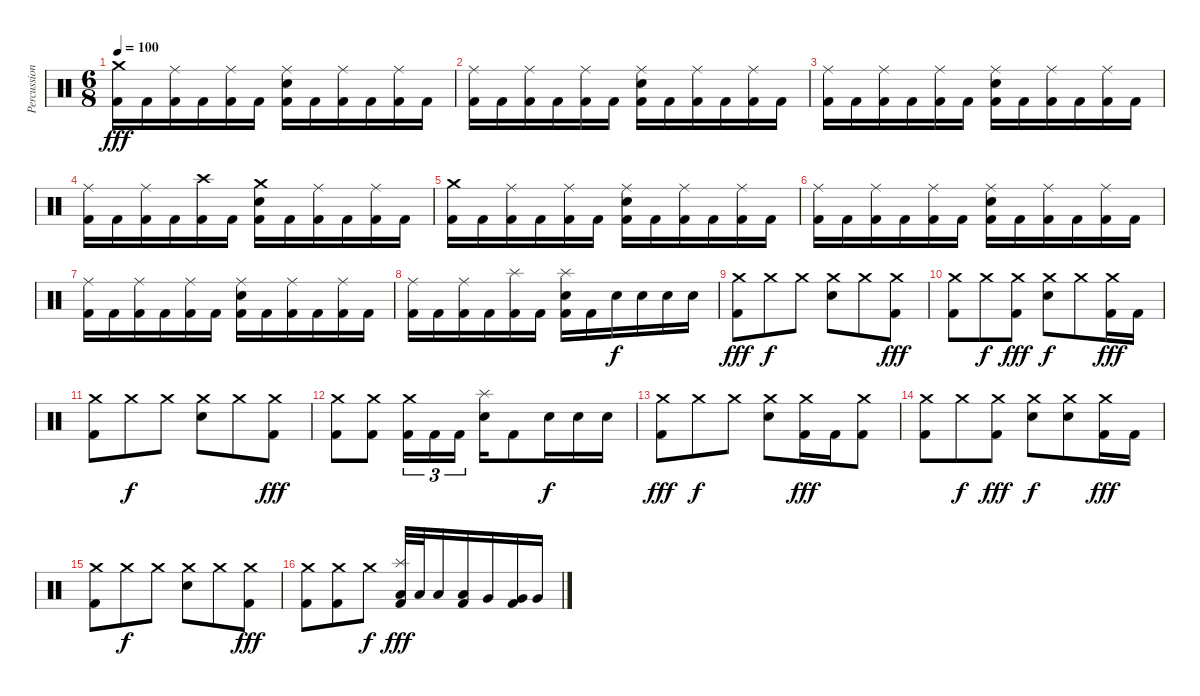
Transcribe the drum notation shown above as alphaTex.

\track ("Percussion" "Percussion") {instrument percussion}
\staff {score}
\articulation defaults
\ts (6 8)
\tempo 100
\clef neutral
\ks c
("Crash medium (hit)" "Kick (hit) 2").16{dy fff} "Kick (hit) 2".16 ("Ride (middle)" "Kick (hit) 2").16 "Kick (hit) 2".16 ("Ride (middle)" "Kick (hit) 2").16 "Kick (hit) 2".16 ("Ride (middle)" "Electric Snare (hit)" "Kick (hit) 2").16 "Kick (hit) 2".16 ("Ride (middle)" "Kick (hit) 2").16 "Kick (hit) 2".16 ("Ride (middle)" "Kick (hit) 2").16 "Kick (hit) 2".16 |
("Ride (middle)" "Kick (hit) 2").16 "Kick (hit) 2".16 ("Ride (middle)" "Kick (hit) 2").16 "Kick (hit) 2".16 ("Ride (middle)" "Kick (hit) 2").16 "Kick (hit) 2".16 ("Ride (middle)" "Electric Snare (hit)" "Kick (hit) 2").16 "Kick (hit) 2".16 ("Ride (middle)" "Kick (hit) 2").16 "Kick (hit) 2".16 ("Ride (middle)" "Kick (hit) 2").16 "Kick (hit) 2".16 |
("Ride (middle)" "Kick (hit) 2").16 "Kick (hit) 2".16 ("Ride (middle)" "Kick (hit) 2").16 "Kick (hit) 2".16 ("Ride (middle)" "Kick (hit) 2").16 "Kick (hit) 2".16 ("Ride (middle)" "Electric Snare (hit)" "Kick (hit) 2").16 "Kick (hit) 2".16 ("Ride (middle)" "Kick (hit) 2").16 "Kick (hit) 2".16 ("Ride (middle)" "Kick (hit) 2").16 "Kick (hit) 2".16 |
("Ride (middle)" "Kick (hit) 2").16 "Kick (hit) 2".16 ("Ride (middle)" "Kick (hit) 2").16 "Kick (hit) 2".16 ("Crash high (hit)" "Kick (hit) 2").16 "Kick (hit) 2".16 ("Crash medium (hit)" "Electric Snare (hit)" "Kick (hit) 2").16 "Kick (hit) 2".16 ("Ride (middle)" "Kick (hit) 2").16 "Kick (hit) 2".16 ("Ride (middle)" "Kick (hit) 2").16 "Kick (hit) 2".16 |
("Crash medium (hit)" "Kick (hit) 2").16 "Kick (hit) 2".16 ("Ride (middle)" "Kick (hit) 2").16 "Kick (hit) 2".16 ("Ride (middle)" "Kick (hit) 2").16 "Kick (hit) 2".16 ("Ride (middle)" "Electric Snare (hit)" "Kick (hit) 2").16 "Kick (hit) 2".16 ("Ride (middle)" "Kick (hit) 2").16 "Kick (hit) 2".16 ("Ride (middle)" "Kick (hit) 2").16 "Kick (hit) 2".16 |
("Ride (middle)" "Kick (hit) 2").16 "Kick (hit) 2".16 ("Ride (middle)" "Kick (hit) 2").16 "Kick (hit) 2".16 ("Ride (middle)" "Kick (hit) 2").16 "Kick (hit) 2".16 ("Ride (middle)" "Electric Snare (hit)" "Kick (hit) 2").16 "Kick (hit) 2".16 ("Ride (middle)" "Kick (hit) 2").16 "Kick (hit) 2".16 ("Ride (middle)" "Kick (hit) 2").16 "Kick (hit) 2".16 |
("Ride (middle)" "Kick (hit) 2").16 "Kick (hit) 2".16 ("Ride (middle)" "Kick (hit) 2").16 "Kick (hit) 2".16 ("Ride (middle)" "Kick (hit) 2").16 "Kick (hit) 2".16 ("Ride (middle)" "Electric Snare (hit)" "Kick (hit) 2").16 "Kick (hit) 2".16 ("Ride (middle)" "Kick (hit) 2").16 "Kick (hit) 2".16 ("Ride (middle)" "Kick (hit) 2").16 "Kick (hit) 2".16 |
("Ride (middle)" "Kick (hit) 2").16 "Kick (hit) 2".16 ("Ride (middle)" "Kick (hit) 2").16 "Kick (hit) 2".16 ("Splash (hit)" "Kick (hit) 2").16 "Kick (hit) 2".16 ("Splash (hit)" "Electric Snare (hit)" "Kick (hit) 2").16 "Kick (hit) 2".16 "Electric Snare (hit)".16{dy f} "Electric Snare (hit)".16 "Electric Snare (hit)".16 "Electric Snare (hit)".16 |
("Crash medium (hit)" "Kick (hit) 2").8{dy fff} "Crash medium (hit)".8{dy f} "Crash medium (hit)".8 ("Crash medium (hit)" "Electric Snare (hit)").8 "Crash medium (hit)".8 ("Crash medium (hit)" "Kick (hit) 2").8{dy fff} |
("Crash medium (hit)" "Kick (hit) 2").8 "Crash medium (hit)".8{dy f} ("Crash medium (hit)" "Kick (hit) 2").8{dy fff} ("Crash medium (hit)" "Electric Snare (hit)").8{dy f} "Crash medium (hit)".8 ("Crash medium (hit)" "Kick (hit) 2").16{dy fff} "Kick (hit) 2".16 |
("Crash medium (hit)" "Kick (hit) 2").8 "Crash medium (hit)".8{dy f} "Crash medium (hit)".8 ("Crash medium (hit)" "Electric Snare (hit)").8 "Crash medium (hit)".8 ("Crash medium (hit)" "Kick (hit) 2").8{dy fff} |
("Crash medium (hit)" "Kick (hit) 2").8 ("Crash medium (hit)" "Kick (hit) 2").8 ("Crash medium (hit)" "Kick (hit) 2").16{tu (3 2)} "Kick (hit) 2".16{tu (3 2)} "Kick (hit) 2".16{tu (3 2)} ("Splash (hit)" "Electric Snare (hit)").16 "Kick (hit) 2".8 "Electric Snare (hit)".16{dy f} "Electric Snare (hit)".16 "Electric Snare (hit)".16 |
("Crash medium (hit)" "Kick (hit) 2").8{dy fff} "Crash medium (hit)".8{dy f} "Crash medium (hit)".8 ("Crash medium (hit)" "Electric Snare (hit)").8 ("Crash medium (hit)" "Kick (hit) 2").16{dy fff} "Kick (hit) 2".16 ("Crash medium (hit)" "Kick (hit) 2").8 |
("Crash medium (hit)" "Kick (hit) 2").8 "Crash medium (hit)".8{dy f} ("Crash medium (hit)" "Kick (hit) 2").8{dy fff} ("Crash medium (hit)" "Electric Snare (hit)").8{dy f} ("Crash medium (hit)" "Electric Snare (hit)").8 ("Crash medium (hit)" "Kick (hit) 2").16{dy fff} "Kick (hit) 2".16 |
("Crash medium (hit)" "Kick (hit) 2").8 "Crash medium (hit)".8{dy f} "Crash medium (hit)".8 ("Crash medium (hit)" "Electric Snare (hit)").8 "Crash medium (hit)".8 ("Crash medium (hit)" "Kick (hit) 2").8{dy fff} |
("Crash medium (hit)" "Kick (hit) 2").8 ("Crash medium (hit)" "Kick (hit) 2").8 "Crash medium (hit)".8{dy f} ("Splash (hit)" "Low Tom (hit)" "Kick (hit) 2").32{dy fff} "Low Tom (hit)".32 "Low Tom (hit)".16 ("Low Tom (hit)" "Kick (hit) 2").16 "Very Low Tom (hit)".16 ("Very Low Tom (hit)" "Kick (hit) 2").16 "Very Low Tom (hit)".16
